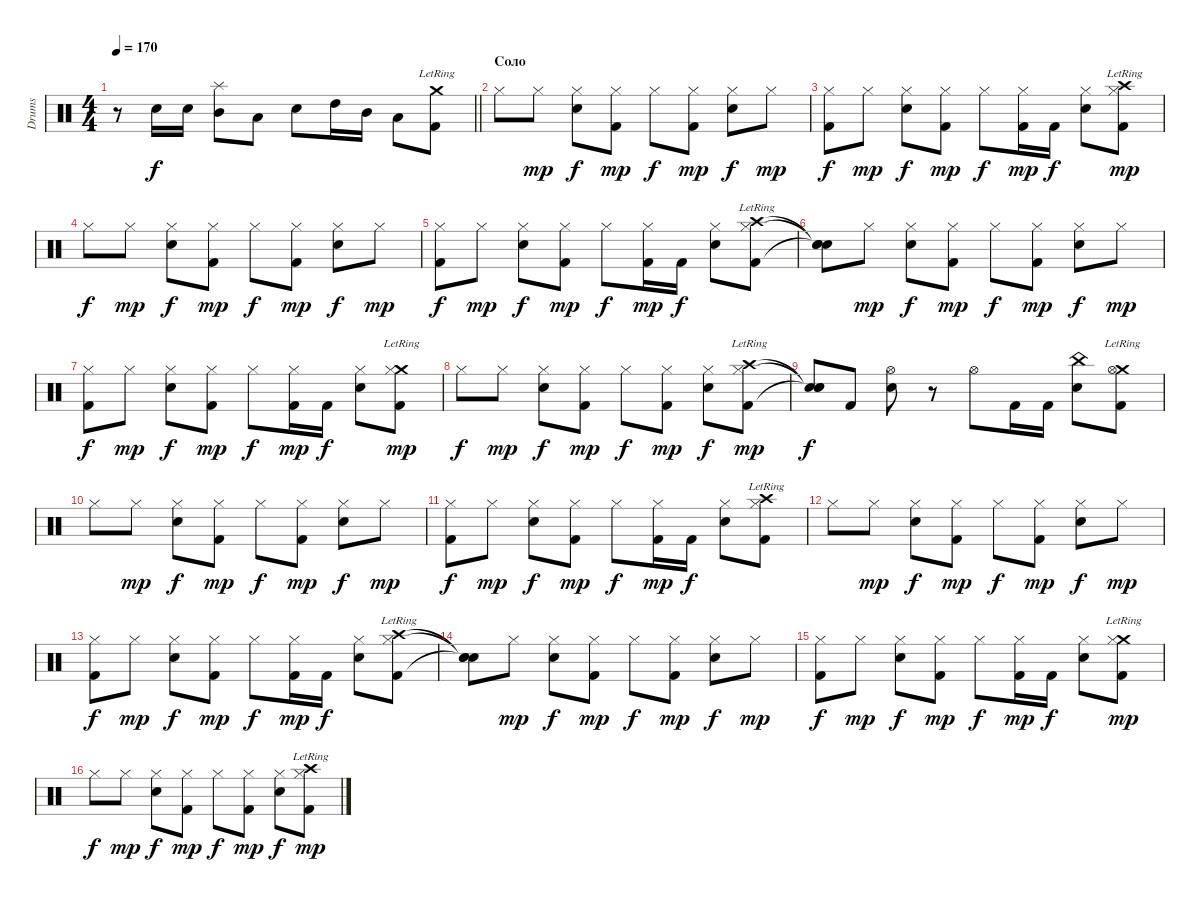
\track ("Drums" "Drums") {instrument percussion}
\staff {score}
\articulation defaults
\ts (4 4)
\tempo 170
\clef neutral
\barLineRight lightlight
\ks c
r.8{dy f} "Electric Snare (hit)".16 "Electric Snare (hit)".16 ("Splash (hit)" "Mid Tom (hit)").8 "Low Tom (hit)".8 "Electric Snare (hit)".8 "High Tom (hit)".16 "Mid Tom (hit)".16 "Low Tom (hit)".8 ("Crash medium (hit)"{lr} "Kick (hit) 2").8 |
\section ("" "Соло")
"Hi-Hat (closed)".8 "Hi-Hat (closed)".8{dy mp} ("Electric Snare (hit)" "Hi-Hat (closed)").8{dy f} ("Kick (hit) 2" "Hi-Hat (closed)").8{dy mp} "Hi-Hat (closed)".8{dy f} ("Kick (hit) 2" "Hi-Hat (closed)").8{dy mp} ("Electric Snare (hit)" "Hi-Hat (closed)").8{dy f} "Hi-Hat (closed)".8{dy mp} |
("Kick (hit) 2" "Hi-Hat (closed)").8{dy f} "Hi-Hat (closed)".8{dy mp} ("Electric Snare (hit)" "Hi-Hat (closed)").8{dy f} ("Kick (hit) 2" "Hi-Hat (closed)").8{dy mp} "Hi-Hat (closed)".8{dy f} ("Kick (hit) 2" "Hi-Hat (closed)").16{dy mp} "Kick (hit) 2".16{dy f} ("Electric Snare (hit)" "Hi-Hat (closed)").8 ("Crash high (hit)"{lr} "Kick (hit) 2" "Hi-Hat (closed)").8{dy mp} |
"Hi-Hat (closed)".8{dy f} "Hi-Hat (closed)".8{dy mp} ("Electric Snare (hit)" "Hi-Hat (closed)").8{dy f} ("Kick (hit) 2" "Hi-Hat (closed)").8{dy mp} "Hi-Hat (closed)".8{dy f} ("Kick (hit) 2" "Hi-Hat (closed)").8{dy mp} ("Electric Snare (hit)" "Hi-Hat (closed)").8{dy f} "Hi-Hat (closed)".8{dy mp} |
("Kick (hit) 2" "Hi-Hat (closed)").8{dy f} "Hi-Hat (closed)".8{dy mp} ("Electric Snare (hit)" "Hi-Hat (closed)").8{dy f} ("Kick (hit) 2" "Hi-Hat (closed)").8{dy mp} "Hi-Hat (closed)".8{dy f} ("Kick (hit) 2" "Hi-Hat (closed)").16{dy mp} "Kick (hit) 2".16{dy f} ("Electric Snare (hit)" "Hi-Hat (closed)").8 ("Crash high (hit)"{lr} "Kick (hit) 2" "Hi-Hat (closed)").8 |
("Snare (hit)"{t} "Snare (hit)"{t} "Snare (hit)"{t}).8 "Hi-Hat (closed)".8{dy mp} ("Electric Snare (hit)" "Hi-Hat (closed)").8{dy f} ("Kick (hit) 2" "Hi-Hat (closed)").8{dy mp} "Hi-Hat (closed)".8{dy f} ("Kick (hit) 2" "Hi-Hat (closed)").8{dy mp} ("Electric Snare (hit)" "Hi-Hat (closed)").8{dy f} "Hi-Hat (closed)".8{dy mp} |
("Kick (hit) 2" "Hi-Hat (closed)").8{dy f} "Hi-Hat (closed)".8{dy mp} ("Electric Snare (hit)" "Hi-Hat (closed)").8{dy f} ("Kick (hit) 2" "Hi-Hat (closed)").8{dy mp} "Hi-Hat (closed)".8{dy f} ("Kick (hit) 2" "Hi-Hat (closed)").16{dy mp} "Kick (hit) 2".16{dy f} ("Electric Snare (hit)" "Hi-Hat (closed)").8 ("Crash medium (hit)"{lr} "Kick (hit) 2" "Hi-Hat (closed)").8{dy mp} |
"Hi-Hat (closed)".8{dy f} "Hi-Hat (closed)".8{dy mp} ("Electric Snare (hit)" "Hi-Hat (closed)").8{dy f} ("Kick (hit) 2" "Hi-Hat (closed)").8{dy mp} "Hi-Hat (closed)".8{dy f} ("Kick (hit) 2" "Hi-Hat (closed)").8{dy mp} ("Electric Snare (hit)" "Hi-Hat (closed)").8{dy f} ("Crash high (hit)"{lr} "Kick (hit) 2" "Hi-Hat (closed)").8{dy mp} |
("Snare (hit)"{t} "Snare (hit)"{t} "Snare (hit)"{t}).8{dy f} "Kick (hit) 2".8 ("Electric Snare (hit)" "Hi-Hat (open)").8 r.8 "Hi-Hat (open)".8 "Kick (hit) 2".16 "Kick (hit) 2".16 ("China (hit)" "Electric Snare (hit)").8 ("Crash medium (hit)"{lr} "Kick (hit) 2" "Hi-Hat (open)").8 |
"Hi-Hat (closed)".8 "Hi-Hat (closed)".8{dy mp} ("Electric Snare (hit)" "Hi-Hat (closed)").8{dy f} ("Kick (hit) 2" "Hi-Hat (closed)").8{dy mp} "Hi-Hat (closed)".8{dy f} ("Kick (hit) 2" "Hi-Hat (closed)").8{dy mp} ("Electric Snare (hit)" "Hi-Hat (closed)").8{dy f} "Hi-Hat (closed)".8{dy mp} |
("Kick (hit) 2" "Hi-Hat (closed)").8{dy f} "Hi-Hat (closed)".8{dy mp} ("Electric Snare (hit)" "Hi-Hat (closed)").8{dy f} ("Kick (hit) 2" "Hi-Hat (closed)").8{dy mp} "Hi-Hat (closed)".8{dy f} ("Kick (hit) 2" "Hi-Hat (closed)").16{dy mp} "Kick (hit) 2".16{dy f} ("Electric Snare (hit)" "Hi-Hat (closed)").8 ("Crash high (hit)"{lr} "Kick (hit) 2" "Hi-Hat (closed)").8 |
"Hi-Hat (closed)".8 "Hi-Hat (closed)".8{dy mp} ("Electric Snare (hit)" "Hi-Hat (closed)").8{dy f} ("Kick (hit) 2" "Hi-Hat (closed)").8{dy mp} "Hi-Hat (closed)".8{dy f} ("Kick (hit) 2" "Hi-Hat (closed)").8{dy mp} ("Electric Snare (hit)" "Hi-Hat (closed)").8{dy f} "Hi-Hat (closed)".8{dy mp} |
("Kick (hit) 2" "Hi-Hat (closed)").8{dy f} "Hi-Hat (closed)".8{dy mp} ("Electric Snare (hit)" "Hi-Hat (closed)").8{dy f} ("Kick (hit) 2" "Hi-Hat (closed)").8{dy mp} "Hi-Hat (closed)".8{dy f} ("Kick (hit) 2" "Hi-Hat (closed)").16{dy mp} "Kick (hit) 2".16{dy f} ("Electric Snare (hit)" "Hi-Hat (closed)").8 ("Crash high (hit)"{lr} "Kick (hit) 2" "Hi-Hat (closed)").8 |
("Snare (hit)"{t} "Snare (hit)"{t} "Snare (hit)"{t}).8 "Hi-Hat (closed)".8{dy mp} ("Electric Snare (hit)" "Hi-Hat (closed)").8{dy f} ("Kick (hit) 2" "Hi-Hat (closed)").8{dy mp} "Hi-Hat (closed)".8{dy f} ("Kick (hit) 2" "Hi-Hat (closed)").8{dy mp} ("Electric Snare (hit)" "Hi-Hat (closed)").8{dy f} "Hi-Hat (closed)".8{dy mp} |
("Kick (hit) 2" "Hi-Hat (closed)").8{dy f} "Hi-Hat (closed)".8{dy mp} ("Electric Snare (hit)" "Hi-Hat (closed)").8{dy f} ("Kick (hit) 2" "Hi-Hat (closed)").8{dy mp} "Hi-Hat (closed)".8{dy f} ("Kick (hit) 2" "Hi-Hat (closed)").16{dy mp} "Kick (hit) 2".16{dy f} ("Electric Snare (hit)" "Hi-Hat (closed)").8 ("Crash medium (hit)"{lr} "Kick (hit) 2" "Hi-Hat (closed)").8{dy mp} |
"Hi-Hat (closed)".8{dy f} "Hi-Hat (closed)".8{dy mp} ("Electric Snare (hit)" "Hi-Hat (closed)").8{dy f} ("Kick (hit) 2" "Hi-Hat (closed)").8{dy mp} "Hi-Hat (closed)".8{dy f} ("Kick (hit) 2" "Hi-Hat (closed)").8{dy mp} ("Electric Snare (hit)" "Hi-Hat (closed)").8{dy f} ("Crash high (hit)"{lr} "Kick (hit) 2" "Hi-Hat (closed)").8{dy mp}
